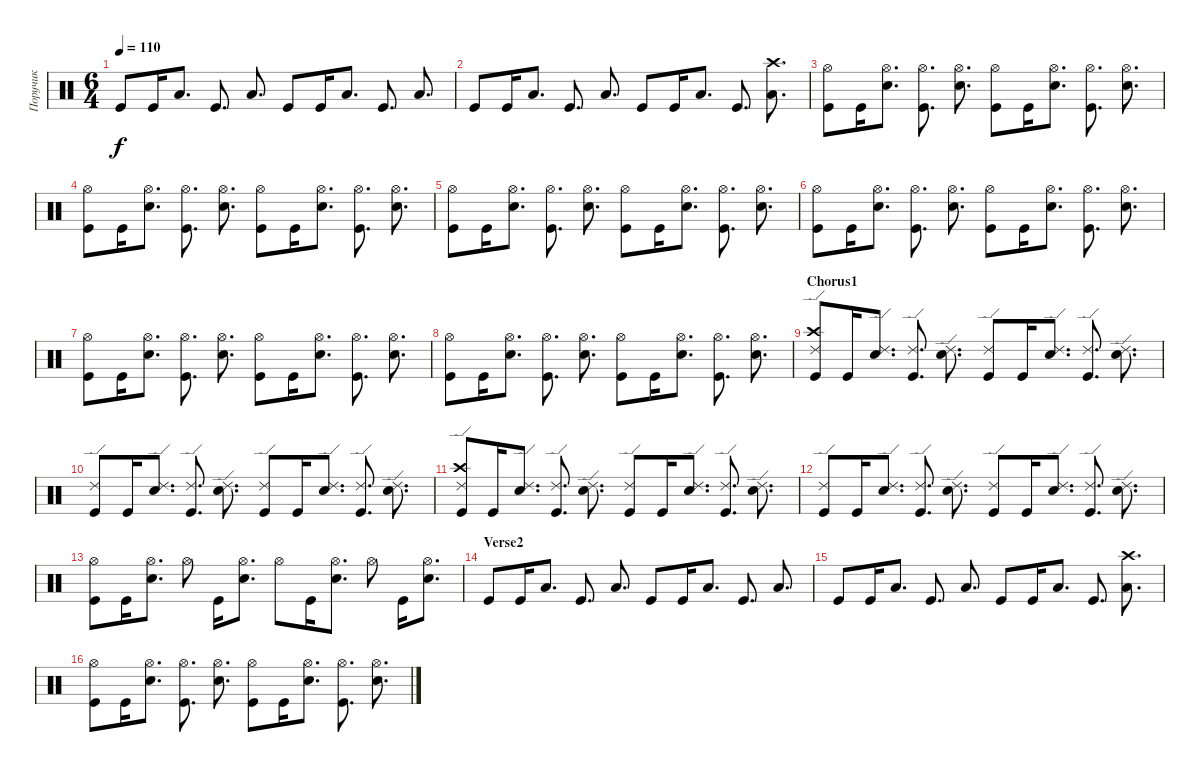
\track ("Поручик" "Поручик") {instrument percussion}
\staff {score}
\articulation defaults
\ts (6 4)
\tempo 110
\clef neutral
\ks c "Kick (hit)".8{dy f} "Kick (hit)".16 "Low Floor Tom (hit)".8{d} "Kick (hit)".8{d} "Low Floor Tom (hit)".8{d} "Kick (hit)".8 "Kick (hit)".16 "Low Floor Tom (hit)".8{d} "Kick (hit)".8{d} "Low Floor Tom (hit)".8{d}
|
"Kick (hit)".8 "Kick (hit)".16 "Low Floor Tom (hit)".8{d} "Kick (hit)".8{d} "Low Floor Tom (hit)".8{d} "Kick (hit)".8 "Kick (hit)".16 "Low Floor Tom (hit)".8{d} "Kick (hit)".8{d} ("Low Floor Tom (hit)" "Crash high (hit)").8{d} |
("Hi-Hat (open)" "Kick (hit)").8 "Kick (hit)".16 ("Hi-Hat (open)" "Snare (hit) 2").8{d} ("Hi-Hat (open)" "Kick (hit)").8{d} ("Hi-Hat (open)" "Snare (hit) 2").8{d} ("Hi-Hat (open)" "Kick (hit)").8 "Kick (hit)".16 ("Hi-Hat (open)" "Snare (hit) 2").8{d} ("Hi-Hat (open)" "Kick (hit)").8{d} ("Hi-Hat (open)" "Snare (hit) 2").8{d} |
("Hi-Hat (open)" "Kick (hit)").8 "Kick (hit)".16 ("Hi-Hat (open)" "Snare (hit) 2").8{d} ("Hi-Hat (open)" "Kick (hit)").8{d} ("Hi-Hat (open)" "Snare (hit) 2").8{d} ("Hi-Hat (open)" "Kick (hit)").8 "Kick (hit)".16 ("Hi-Hat (open)" "Snare (hit) 2").8{d} ("Hi-Hat (open)" "Kick (hit)").8{d} ("Hi-Hat (open)" "Snare (hit) 2").8{d} |
("Hi-Hat (open)" "Kick (hit)").8 "Kick (hit)".16 ("Hi-Hat (open)" "Snare (hit) 2").8{d} ("Hi-Hat (open)" "Kick (hit)").8{d} ("Hi-Hat (open)" "Snare (hit) 2").8{d} ("Hi-Hat (open)" "Kick (hit)").8 "Kick (hit)".16 ("Hi-Hat (open)" "Snare (hit) 2").8{d} ("Hi-Hat (open)" "Kick (hit)").8{d} ("Hi-Hat (open)" "Snare (hit) 2").8{d} |
("Hi-Hat (open)" "Kick (hit)").8 "Kick (hit)".16 ("Hi-Hat (open)" "Snare (hit) 2").8{d} ("Hi-Hat (open)" "Kick (hit)").8{d} ("Hi-Hat (open)" "Snare (hit) 2").8{d} ("Hi-Hat (open)" "Kick (hit)").8 "Kick (hit)".16 ("Hi-Hat (open)" "Snare (hit) 2").8{d} ("Hi-Hat (open)" "Kick (hit)").8{d} ("Hi-Hat (open)" "Snare (hit) 2").8{d} |
("Hi-Hat (open)" "Kick (hit)").8 "Kick (hit)".16 ("Hi-Hat (open)" "Snare (hit) 2").8{d} ("Hi-Hat (open)" "Kick (hit)").8{d} ("Hi-Hat (open)" "Snare (hit) 2").8{d} ("Hi-Hat (open)" "Kick (hit)").8 "Kick (hit)".16 ("Hi-Hat (open)" "Snare (hit) 2").8{d} ("Hi-Hat (open)" "Kick (hit)").8{d} ("Hi-Hat (open)" "Snare (hit) 2").8{d} |
("Hi-Hat (open)" "Kick (hit)").8 "Kick (hit)".16 ("Hi-Hat (open)" "Snare (hit) 2").8{d} ("Hi-Hat (open)" "Kick (hit)").8{d} ("Hi-Hat (open)" "Snare (hit) 2").8{d} ("Hi-Hat (open)" "Kick (hit)").8 "Kick (hit)".16 ("Hi-Hat (open)" "Snare (hit) 2").8{d} ("Hi-Hat (open)" "Kick (hit)").8{d} ("Hi-Hat (open)" "Snare (hit) 2").8{d} |
\section ("" "Chorus1")
("Ride (edge) 2" "Kick (hit)" "Crash high (hit)").8 "Kick (hit)".16 ("Ride (edge) 2" "Snare (hit) 2").8{d} ("Ride (edge) 2" "Kick (hit)").8{d} ("Ride (edge) 2" "Snare (hit) 2").8{d} ("Ride (edge) 2" "Kick (hit)").8 "Kick (hit)".16 ("Ride (edge) 2" "Snare (hit) 2").8{d} ("Ride (edge) 2" "Kick (hit)").8{d} ("Ride (edge) 2" "Snare (hit) 2").8{d} |
("Ride (edge) 2" "Kick (hit)").8 "Kick (hit)".16 ("Ride (edge) 2" "Snare (hit) 2").8{d} ("Ride (edge) 2" "Kick (hit)").8{d} ("Ride (edge) 2" "Snare (hit) 2").8{d} ("Ride (edge) 2" "Kick (hit)").8 "Kick (hit)".16 ("Ride (edge) 2" "Snare (hit) 2").8{d} ("Ride (edge) 2" "Kick (hit)").8{d} ("Ride (edge) 2" "Snare (hit) 2").8{d} |
("Ride (edge) 2" "Kick (hit)" "Crash high (hit)").8 "Kick (hit)".16 ("Ride (edge) 2" "Snare (hit) 2").8{d} ("Ride (edge) 2" "Kick (hit)").8{d} ("Ride (edge) 2" "Snare (hit) 2").8{d} ("Ride (edge) 2" "Kick (hit)").8 "Kick (hit)".16 ("Ride (edge) 2" "Snare (hit) 2").8{d} ("Ride (edge) 2" "Kick (hit)").8{d} ("Ride (edge) 2" "Snare (hit) 2").8{d} |
("Ride (edge) 2" "Kick (hit)").8 "Kick (hit)".16 ("Ride (edge) 2" "Snare (hit) 2").8{d} ("Ride (edge) 2" "Kick (hit)").8{d} ("Ride (edge) 2" "Snare (hit) 2").8{d} ("Ride (edge) 2" "Kick (hit)").8 "Kick (hit)".16 ("Ride (edge) 2" "Snare (hit) 2").8{d} ("Ride (edge) 2" "Kick (hit)").8{d} ("Ride (edge) 2" "Snare (hit) 2").8{d} |
("Hi-Hat (open)" "Kick (hit)").8 "Kick (hit)".16 ("Hi-Hat (open)" "Snare (hit) 2").8{d} "Hi-Hat (open)".8 "Kick (hit)".16 ("Hi-Hat (open)" "Snare (hit) 2").8{d} "Hi-Hat (open)".8 "Kick (hit)".16 ("Hi-Hat (open)" "Snare (hit) 2").8{d} "Hi-Hat (open)".8 "Kick (hit)".16 ("Hi-Hat (open)" "Snare (hit) 2").8{d} |
\section ("" "Verse2")
"Kick (hit)".8 "Kick (hit)".16 "Low Floor Tom (hit)".8{d} "Kick (hit)".8{d} "Low Floor Tom (hit)".8{d} "Kick (hit)".8 "Kick (hit)".16 "Low Floor Tom (hit)".8{d} "Kick (hit)".8{d} "Low Floor Tom (hit)".8{d} |
"Kick (hit)".8 "Kick (hit)".16 "Low Floor Tom (hit)".8{d} "Kick (hit)".8{d} "Low Floor Tom (hit)".8{d} "Kick (hit)".8 "Kick (hit)".16 "Low Floor Tom (hit)".8{d} "Kick (hit)".8{d} ("Low Floor Tom (hit)" "Crash high (hit)").8{d} |
("Hi-Hat (open)" "Kick (hit)").8 "Kick (hit)".16 ("Hi-Hat (open)" "Snare (hit) 2").8{d} ("Hi-Hat (open)" "Kick (hit)").8{d} ("Hi-Hat (open)" "Snare (hit) 2").8{d} ("Hi-Hat (open)" "Kick (hit)").8 "Kick (hit)".16 ("Hi-Hat (open)" "Snare (hit) 2").8{d} ("Hi-Hat (open)" "Kick (hit)").8{d} ("Hi-Hat (open)" "Snare (hit) 2").8{d}
